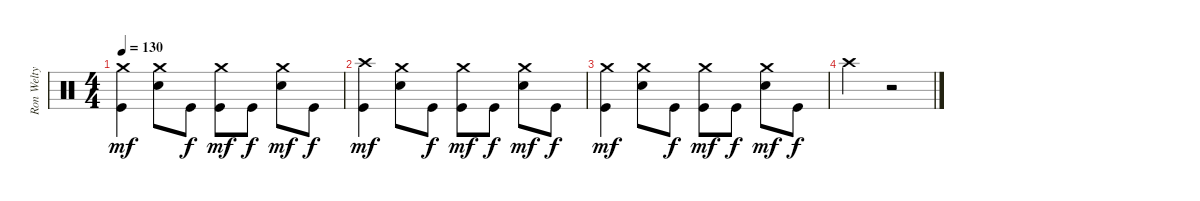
\track ("Ron Welty" "Ron Welty") {instrument percussion}
\staff {score}
\articulation defaults
\ts (4 4)
\tempo 130
\clef neutral
\ks c
("Kick (hit)" "Crash medium (hit)").4{dy mf} ("Electric Snare (hit)" "Crash medium (hit)").8 "Kick (hit)".8{dy f} ("Kick (hit)" "Crash medium (hit)").8{dy mf} "Kick (hit)".8{dy f} ("Electric Snare (hit)" "Crash medium (hit)").8{dy mf} "Kick (hit)".8{dy f} |
("Kick (hit)" "Crash high (hit)").4{dy mf} ("Electric Snare (hit)" "Crash medium (hit)").8 "Kick (hit)".8{dy f} ("Kick (hit)" "Crash medium (hit)").8{dy mf} "Kick (hit)".8{dy f} ("Electric Snare (hit)" "Crash medium (hit)").8{dy mf} "Kick (hit)".8{dy f} |
("Kick (hit)" "Crash medium (hit)").4{dy mf} ("Electric Snare (hit)" "Crash medium (hit)").8 "Kick (hit)".8{dy f} ("Kick (hit)" "Crash medium (hit)").8{dy mf} "Kick (hit)".8{dy f} ("Electric Snare (hit)" "Crash medium (hit)").8{dy mf} "Kick (hit)".8{dy f} |
"Crash high (hit)".2 r.2
